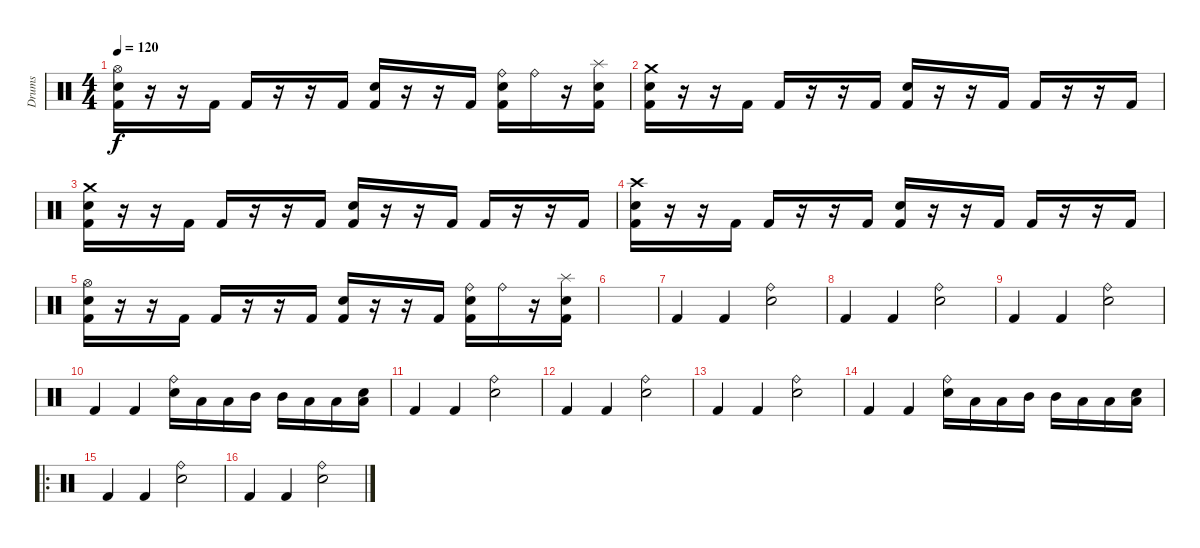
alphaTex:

\track ("Drums" "Drums") {instrument percussion}
\staff {score}
\articulation defaults
\ts (4 4)
\tempo 120
\clef neutral
\ks c
("Hi-Hat (open)" "Electric Snare (hit)" "Kick (hit) 2").16{dy f} r.16 r.16 "Kick (hit) 2".16 "Kick (hit) 2".16 r.16 r.16 "Kick (hit) 2".16 ("Electric Snare (hit)" "Kick (hit) 2").16 r.16 r.16 "Kick (hit) 2".16 ("Ride (bell)" "Electric Snare (hit)" "Kick (hit) 2").16 "Ride (bell)".16 r.16 ("Splash (hit)" "Electric Snare (hit)" "Kick (hit) 2").16 |
("Crash medium (hit)" "Electric Snare (hit)" "Kick (hit) 2").16 r.16 r.16 "Kick (hit) 2".16 "Kick (hit) 2".16 r.16 r.16 "Kick (hit) 2".16 ("Electric Snare (hit)" "Kick (hit) 2").16 r.16 r.16 "Kick (hit) 2".16 "Kick (hit) 2".16 r.16 r.16 "Kick (hit) 2".16 |
("Crash medium (hit)" "Electric Snare (hit)" "Kick (hit) 2").16 r.16 r.16 "Kick (hit) 2".16 "Kick (hit) 2".16 r.16 r.16 "Kick (hit) 2".16 ("Electric Snare (hit)" "Kick (hit) 2").16 r.16 r.16 "Kick (hit) 2".16 "Kick (hit) 2".16 r.16 r.16 "Kick (hit) 2".16 |
("Crash high (hit)" "Electric Snare (hit)" "Kick (hit) 2").16 r.16 r.16 "Kick (hit) 2".16 "Kick (hit) 2".16 r.16 r.16 "Kick (hit) 2".16 ("Electric Snare (hit)" "Kick (hit) 2").16 r.16 r.16 "Kick (hit) 2".16 "Kick (hit) 2".16 r.16 r.16 "Kick (hit) 2".16 |
("Hi-Hat (open)" "Electric Snare (hit)" "Kick (hit) 2").16 r.16 r.16 "Kick (hit) 2".16 "Kick (hit) 2".16 r.16 r.16 "Kick (hit) 2".16 ("Electric Snare (hit)" "Kick (hit) 2").16 r.16 r.16 "Kick (hit) 2".16 ("Ride (bell)" "Electric Snare (hit)" "Kick (hit) 2").16 "Ride (bell)".16 r.16 ("Splash (hit)" "Electric Snare (hit)" "Kick (hit) 2").16 |
|
"Kick (hit) 2".4 "Kick (hit) 2".4 ("Ride (bell)" "Electric Snare (hit)").2 |
"Kick (hit) 2".4 "Kick (hit) 2".4 ("Ride (bell)" "Electric Snare (hit)").2 |
"Kick (hit) 2".4 "Kick (hit) 2".4 ("Ride (bell)" "Electric Snare (hit)").2 |
"Kick (hit) 2".4 "Kick (hit) 2".4 ("Ride (bell)" "Electric Snare (hit)").16 "Low Tom (hit)".16 "Low Tom (hit)".16 "Mid Tom (hit)".16 "Mid Tom (hit)".16 "Low Floor Tom (hit)".16 "Low Floor Tom (hit)".16 ("Low Tom (hit)" "Electric Snare (hit)").16 |
"Kick (hit) 2".4 "Kick (hit) 2".4 ("Ride (bell)" "Electric Snare (hit)").2 |
"Kick (hit) 2".4 "Kick (hit) 2".4 ("Ride (bell)" "Electric Snare (hit)").2 |
"Kick (hit) 2".4 "Kick (hit) 2".4 ("Ride (bell)" "Electric Snare (hit)").2 |
"Kick (hit) 2".4 "Kick (hit) 2".4 ("Ride (bell)" "Electric Snare (hit)").16 "Low Tom (hit)".16 "Low Tom (hit)".16 "Mid Tom (hit)".16 "Mid Tom (hit)".16 "Low Floor Tom (hit)".16 "Low Floor Tom (hit)".16 ("Low Tom (hit)" "Electric Snare (hit)").16 |
\ro "Kick (hit) 2".4 "Kick (hit) 2".4
("Ride (bell)" "Electric Snare (hit)").2 |
"Kick (hit) 2".4 "Kick (hit) 2".4 ("Ride (bell)" "Electric Snare (hit)").2
